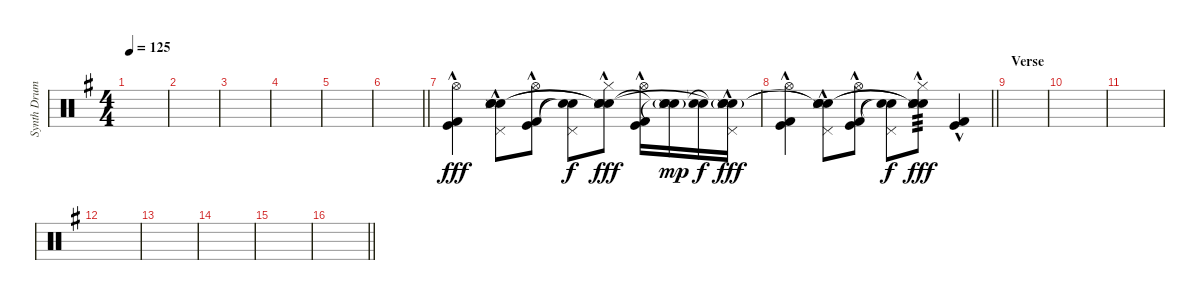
\track ("Synth Drums" "Synth Drum") {instrument percussion}
\staff {score}
\articulation defaults
\ts (4 4)
\tempo 125
\clef neutral
\ks eminor
|
|
|
|
|
\barLineRight lightlight
|
("Hi-Hat (open)"{hac} "Kick (hit) 2"{hac} "Kick (hit)"{hac}).4{dy fff} ("Pedal Hi-Hat (hit)" "Snare (hit) 2" "Snare (side stick) 3"{hac} "Snare (hit)" "Snare (hit)").8 ("Hi-Hat (open)" "Kick (hit) 2"{hac} "Kick (hit)"{hac}).8 ("Pedal Hi-Hat (hit)" "Snare (hit)"{t} "Snare (hit)"{t}).8{dy f} ("Hi-Hat (closed)" "Snare (hit) 2" "Snare (side stick) 3"{hac} "Snare (hit)"{t} "Snare (hit)"{t}).8{dy fff} ("Hi-Hat (open)" "Kick (hit) 2"{hac} "Kick (hit)"{hac}).16 ("Snare (hit) 2"{g} "Snare (side stick) 3" "Snare (hit)"{t} "Snare (hit)"{t}).16{dy mp} ("Snare (hit)"{t} "Snare (hit)"{t}).16{dy f} ("Pedal Hi-Hat (hit)" "Snare (hit) 2"{g} "Snare (side stick) 3"{hac} "Snare (hit)"{t} "Snare (hit)"{t}).16{dy fff} |
\barLineRight lightlight
("Hi-Hat (open)"{hac} "Kick (hit) 2"{hac} "Kick (hit)"{hac}).4 ("Pedal Hi-Hat (hit)" "Snare (hit) 2" "Snare (side stick) 3"{hac} "Snare (hit)"{t} "Snare (hit)"{t}).8 ("Hi-Hat (open)" "Kick (hit) 2"{hac} "Kick (hit)"{hac}).8 ("Pedal Hi-Hat (hit)" "Snare (hit)"{t} "Snare (hit)"{t}).8{dy f} ("Hi-Hat (closed)" "Snare (hit) 2" "Snare (side stick) 3"{hac} "Snare (hit)"{t} "Snare (hit)"{t}).8{tp 3 dy fff} ("Kick (hit) 2"{hac} "Kick (hit)"{hac}).4 |
\section ("" "Verse")
|
|
|
|
|
|
|
\barLineRight lightlight
